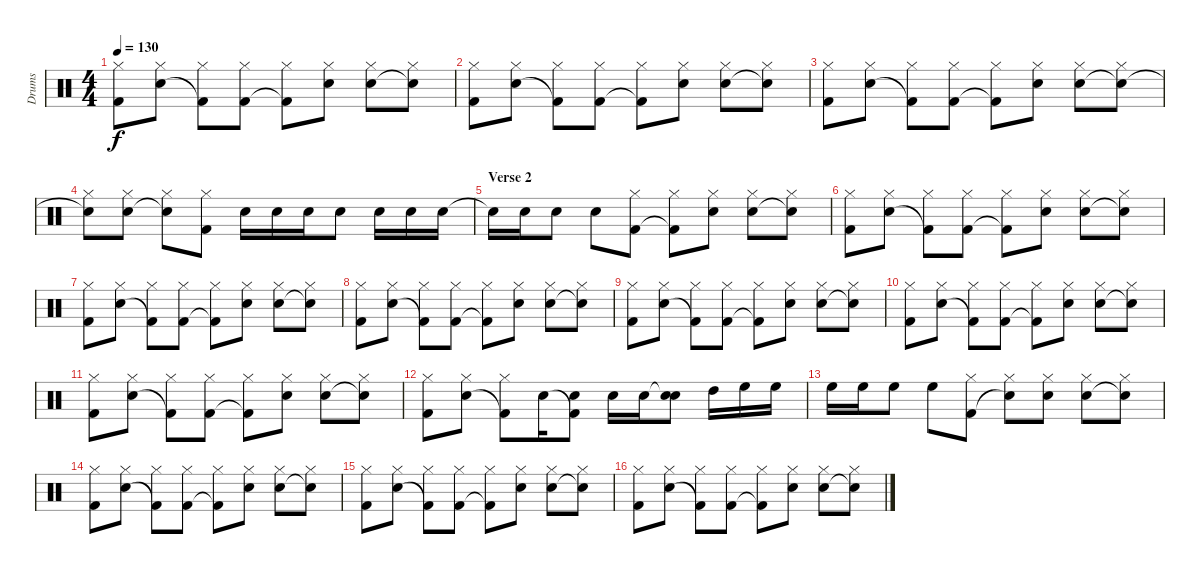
\track ("Drums" "Drums") {instrument percussion}
\staff {score}
\articulation defaults
\ts (4 4)
\tempo 130
\clef neutral
\ks c
("Kick (hit) 2" "Hi-Hat (closed)").8{dy f} ("Snare (hit) 2" "Hi-Hat (closed)").8 ("Kick (hit) 2"{t} "Hi-Hat (closed)").8 ("Kick (hit) 2" "Hi-Hat (closed)").8 ("Kick (hit) 2"{t} "Hi-Hat (closed)").8 ("Snare (hit) 2" "Hi-Hat (closed)").8 ("Snare (hit) 2" "Hi-Hat (closed)").8 ("Snare (hit) 2"{t} "Hi-Hat (closed)").8 |
("Kick (hit) 2" "Hi-Hat (closed)").8 ("Snare (hit) 2" "Hi-Hat (closed)").8 ("Kick (hit) 2"{t} "Hi-Hat (closed)").8 ("Kick (hit) 2" "Hi-Hat (closed)").8 ("Kick (hit) 2"{t} "Hi-Hat (closed)").8 ("Snare (hit) 2" "Hi-Hat (closed)").8 ("Snare (hit) 2" "Hi-Hat (closed)").8 ("Snare (hit) 2"{t} "Hi-Hat (closed)").8 |
("Kick (hit) 2" "Hi-Hat (closed)").8 ("Snare (hit) 2" "Hi-Hat (closed)").8 ("Kick (hit) 2"{t} "Hi-Hat (closed)").8 ("Kick (hit) 2" "Hi-Hat (closed)").8 ("Kick (hit) 2"{t} "Hi-Hat (closed)").8 ("Snare (hit) 2" "Hi-Hat (closed)").8 ("Snare (hit) 2" "Hi-Hat (closed)").8 ("Snare (hit) 2"{t} "Hi-Hat (closed)").8 |
("Snare (hit)"{t} "Hi-Hat (closed)").8 ("Snare (hit) 2" "Hi-Hat (closed)").8 ("Snare (hit)"{t} "Hi-Hat (closed)").8 ("Kick (hit) 2" "Hi-Hat (closed)").8 "Snare (hit) 2".16 "Snare (hit) 2".16 "Snare (hit) 2".16 "Snare (hit) 2".8 "Snare (hit) 2".16 "Snare (hit) 2".16 "Snare (hit) 2".16 |
\section ("" "Verse 2")
"Snare (hit) 2"{t}.16 "Snare (hit) 2".16 "Snare (hit) 2".8 "Snare (hit) 2".8 ("Kick (hit) 2" "Hi-Hat (closed)").8 ("Kick (hit) 2"{t} "Hi-Hat (closed)").8 ("Snare (hit) 2" "Hi-Hat (closed)").8 ("Snare (hit) 2" "Hi-Hat (closed)").8 ("Snare (hit)"{t} "Hi-Hat (closed)").8 |
("Kick (hit) 2" "Hi-Hat (closed)").8 ("Snare (hit) 2" "Hi-Hat (closed)").8 ("Kick (hit) 2"{t} "Hi-Hat (closed)").8 ("Kick (hit) 2" "Hi-Hat (closed)").8 ("Kick (hit) 2"{t} "Hi-Hat (closed)").8 ("Snare (hit) 2" "Hi-Hat (closed)").8 ("Snare (hit) 2" "Hi-Hat (closed)").8 ("Snare (hit) 2"{t} "Hi-Hat (closed)").8 |
("Kick (hit) 2" "Hi-Hat (closed)").8 ("Snare (hit) 2" "Hi-Hat (closed)").8 ("Kick (hit) 2"{t} "Hi-Hat (closed)").8 ("Kick (hit) 2" "Hi-Hat (closed)").8 ("Kick (hit) 2"{t} "Hi-Hat (closed)").8 ("Snare (hit) 2" "Hi-Hat (closed)").8 ("Snare (hit) 2" "Hi-Hat (closed)").8 ("Snare (hit) 2"{t} "Hi-Hat (closed)").8 |
("Kick (hit) 2" "Hi-Hat (closed)").8 ("Snare (hit) 2" "Hi-Hat (closed)").8 ("Kick (hit) 2"{t} "Hi-Hat (closed)").8 ("Kick (hit) 2" "Hi-Hat (closed)").8 ("Kick (hit) 2"{t} "Hi-Hat (closed)").8 ("Snare (hit) 2" "Hi-Hat (closed)").8 ("Snare (hit) 2" "Hi-Hat (closed)").8 ("Snare (hit) 2"{t} "Hi-Hat (closed)").8 |
("Kick (hit) 2" "Hi-Hat (closed)").8 ("Snare (hit) 2" "Hi-Hat (closed)").8 ("Kick (hit) 2"{t} "Hi-Hat (closed)").8 ("Kick (hit) 2" "Hi-Hat (closed)").8 ("Kick (hit) 2"{t} "Hi-Hat (closed)").8 ("Snare (hit) 2" "Hi-Hat (closed)").8 ("Snare (hit) 2" "Hi-Hat (closed)").8 ("Snare (hit) 2"{t} "Hi-Hat (closed)").8 |
("Kick (hit) 2" "Hi-Hat (closed)").8 ("Snare (hit) 2" "Hi-Hat (closed)").8 ("Kick (hit) 2"{t} "Hi-Hat (closed)").8 ("Kick (hit) 2" "Hi-Hat (closed)").8 ("Kick (hit) 2"{t} "Hi-Hat (closed)").8 ("Snare (hit) 2" "Hi-Hat (closed)").8 ("Snare (hit) 2" "Hi-Hat (closed)").8 ("Snare (hit) 2"{t} "Hi-Hat (closed)").8 |
("Kick (hit) 2" "Hi-Hat (closed)").8 ("Snare (hit) 2" "Hi-Hat (closed)").8 ("Kick (hit) 2"{t} "Hi-Hat (closed)").8 ("Kick (hit) 2" "Hi-Hat (closed)").8 ("Kick (hit) 2"{t} "Hi-Hat (closed)").8 ("Snare (hit) 2" "Hi-Hat (closed)").8 ("Snare (hit) 2" "Hi-Hat (closed)").8 ("Snare (hit) 2"{t} "Hi-Hat (closed)").8 |
("Kick (hit) 2" "Hi-Hat (closed)").8 ("Snare (hit) 2" "Hi-Hat (closed)").8 ("Kick (hit) 2"{t} "Hi-Hat (closed)").8 "Snare (hit) 2".16 ("Kick (hit) 2"{t} "Snare (hit) 2").8 "Snare (hit) 2".16 "Snare (hit) 2".16 ("Snare (hit) 2"{t} "Snare (hit) 2").8 "High Tom (hit)".16 "High Floor Tom (hit)".16 "High Floor Tom (hit)".16 |
"High Floor Tom (hit)".16 "High Floor Tom (hit)".16 "High Floor Tom (hit)".8 "High Floor Tom (hit)".8 ("Kick (hit) 2" "Hi-Hat (closed)").8 ("Snare (hit) 2"{t} "Hi-Hat (closed)").8 ("Snare (hit) 2" "Hi-Hat (closed)").8 ("Snare (hit) 2" "Hi-Hat (closed)").8 ("Snare (hit)"{t} "Hi-Hat (closed)").8 |
("Kick (hit) 2" "Hi-Hat (closed)").8 ("Snare (hit) 2" "Hi-Hat (closed)").8 ("Kick (hit) 2"{t} "Hi-Hat (closed)").8 ("Kick (hit) 2" "Hi-Hat (closed)").8 ("Kick (hit) 2"{t} "Hi-Hat (closed)").8 ("Snare (hit) 2" "Hi-Hat (closed)").8 ("Snare (hit) 2" "Hi-Hat (closed)").8 ("Snare (hit) 2"{t} "Hi-Hat (closed)").8 |
("Kick (hit) 2" "Hi-Hat (closed)").8 ("Snare (hit) 2" "Hi-Hat (closed)").8 ("Kick (hit) 2"{t} "Hi-Hat (closed)").8 ("Kick (hit) 2" "Hi-Hat (closed)").8 ("Kick (hit) 2"{t} "Hi-Hat (closed)").8 ("Snare (hit) 2" "Hi-Hat (closed)").8 ("Snare (hit) 2" "Hi-Hat (closed)").8 ("Snare (hit) 2"{t} "Hi-Hat (closed)").8 |
("Kick (hit) 2" "Hi-Hat (closed)").8 ("Snare (hit) 2" "Hi-Hat (closed)").8 ("Kick (hit) 2"{t} "Hi-Hat (closed)").8 ("Kick (hit) 2" "Hi-Hat (closed)").8 ("Kick (hit) 2"{t} "Hi-Hat (closed)").8 ("Snare (hit) 2" "Hi-Hat (closed)").8 ("Snare (hit) 2" "Hi-Hat (closed)").8 ("Snare (hit) 2"{t} "Hi-Hat (closed)").8
